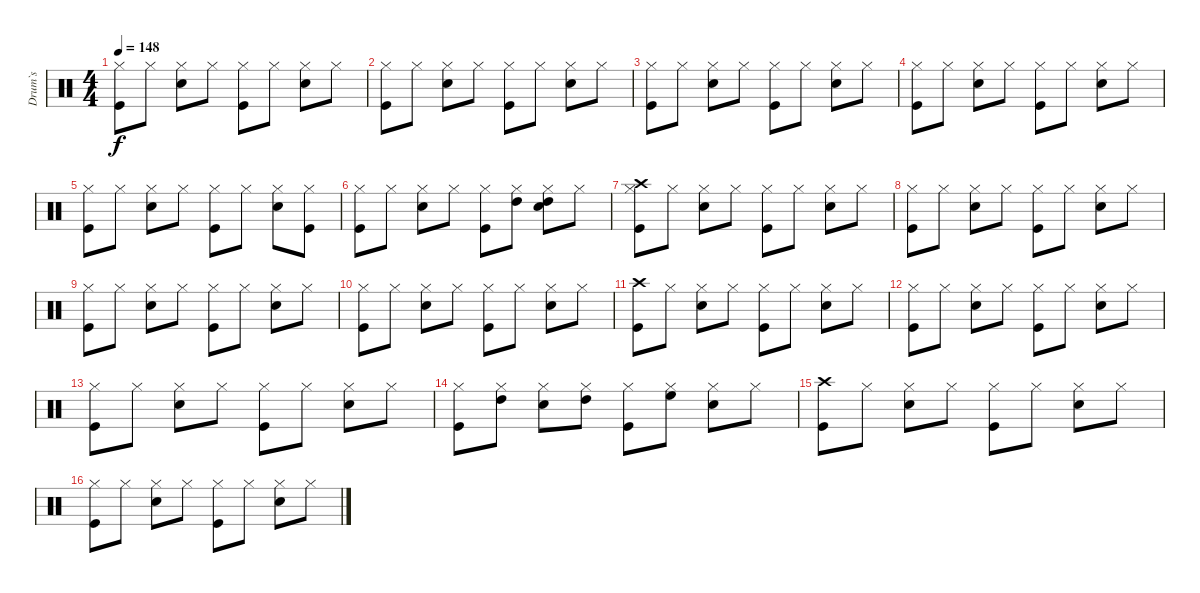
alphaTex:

\track ("Drum`s" "Drum`s") {instrument percussion}
\staff {score}
\articulation defaults
\ts (4 4)
\tempo 148
\clef neutral
\ks c
("Hi-Hat (closed)" "Kick (hit)").8{dy f} "Hi-Hat (closed)".8 ("Hi-Hat (closed)" "Snare (hit) 2").8 "Hi-Hat (closed)".8 ("Hi-Hat (closed)" "Kick (hit)").8 "Hi-Hat (closed)".8 ("Hi-Hat (closed)" "Snare (hit) 2").8 "Hi-Hat (closed)".8 |
("Hi-Hat (closed)" "Kick (hit)").8 "Hi-Hat (closed)".8 ("Hi-Hat (closed)" "Snare (hit) 2").8 "Hi-Hat (closed)".8 ("Hi-Hat (closed)" "Kick (hit)").8 "Hi-Hat (closed)".8 ("Hi-Hat (closed)" "Snare (hit) 2").8 "Hi-Hat (closed)".8 |
("Hi-Hat (closed)" "Kick (hit)").8 "Hi-Hat (closed)".8 ("Hi-Hat (closed)" "Snare (hit) 2").8 "Hi-Hat (closed)".8 ("Hi-Hat (closed)" "Kick (hit)").8 "Hi-Hat (closed)".8 ("Hi-Hat (closed)" "Snare (hit) 2").8 "Hi-Hat (closed)".8 |
("Hi-Hat (closed)" "Kick (hit)").8 "Hi-Hat (closed)".8 ("Hi-Hat (closed)" "Snare (hit) 2").8 "Hi-Hat (closed)".8 ("Hi-Hat (closed)" "Kick (hit)").8 "Hi-Hat (closed)".8 ("Hi-Hat (closed)" "Snare (hit) 2").8 "Hi-Hat (closed)".8 |
("Hi-Hat (closed)" "Kick (hit)").8 "Hi-Hat (closed)".8 ("Hi-Hat (closed)" "Snare (hit) 2").8 "Hi-Hat (closed)".8 ("Hi-Hat (closed)" "Kick (hit)").8 "Hi-Hat (closed)".8 ("Hi-Hat (closed)" "Snare (hit) 2").8 ("Kick (hit)" "Hi-Hat (closed)").8 |
("Hi-Hat (closed)" "Kick (hit)").8 "Hi-Hat (closed)".8 ("Hi-Hat (closed)" "Snare (hit) 2").8 "Hi-Hat (closed)".8 ("Hi-Hat (closed)" "Kick (hit)").8 ("High Tom (hit)" "Hi-Hat (closed)").8 ("High Tom (hit)" "Hi-Hat (closed)" "Snare (hit) 2").8 "Hi-Hat (closed)".8 |
("Crash high (hit)" "Hi-Hat (closed)" "Kick (hit)").8 "Hi-Hat (closed)".8 ("Hi-Hat (closed)" "Snare (hit) 2").8 "Hi-Hat (closed)".8 ("Hi-Hat (closed)" "Kick (hit)").8 "Hi-Hat (closed)".8 ("Hi-Hat (closed)" "Snare (hit) 2").8 "Hi-Hat (closed)".8 |
("Hi-Hat (closed)" "Kick (hit)").8 "Hi-Hat (closed)".8 ("Hi-Hat (closed)" "Snare (hit) 2").8 "Hi-Hat (closed)".8 ("Hi-Hat (closed)" "Kick (hit)").8 "Hi-Hat (closed)".8 ("Hi-Hat (closed)" "Snare (hit) 2").8 "Hi-Hat (closed)".8 |
("Hi-Hat (closed)" "Kick (hit)").8 "Hi-Hat (closed)".8 ("Hi-Hat (closed)" "Snare (hit) 2").8 "Hi-Hat (closed)".8 ("Hi-Hat (closed)" "Kick (hit)").8 "Hi-Hat (closed)".8 ("Hi-Hat (closed)" "Snare (hit) 2").8 "Hi-Hat (closed)".8 |
("Hi-Hat (closed)" "Kick (hit)").8 "Hi-Hat (closed)".8 ("Hi-Hat (closed)" "Snare (hit) 2").8 "Hi-Hat (closed)".8 ("Hi-Hat (closed)" "Kick (hit)").8 "Hi-Hat (closed)".8 ("Hi-Hat (closed)" "Snare (hit) 2").8 "Hi-Hat (closed)".8 |
("Crash high (hit)" "Kick (hit)").8 "Hi-Hat (closed)".8 ("Hi-Hat (closed)" "Snare (hit) 2").8 "Hi-Hat (closed)".8 ("Hi-Hat (closed)" "Kick (hit)").8 "Hi-Hat (closed)".8 ("Hi-Hat (closed)" "Snare (hit) 2").8 "Hi-Hat (closed)".8 |
("Hi-Hat (closed)" "Kick (hit)").8 "Hi-Hat (closed)".8 ("Hi-Hat (closed)" "Snare (hit) 2").8 "Hi-Hat (closed)".8 ("Hi-Hat (closed)" "Kick (hit)").8 "Hi-Hat (closed)".8 ("Hi-Hat (closed)" "Snare (hit) 2").8 "Hi-Hat (closed)".8 |
("Hi-Hat (closed)" "Kick (hit)").8 "Hi-Hat (closed)".8 ("Hi-Hat (closed)" "Snare (hit) 2").8 "Hi-Hat (closed)".8 ("Hi-Hat (closed)" "Kick (hit)").8 "Hi-Hat (closed)".8 ("Hi-Hat (closed)" "Snare (hit) 2").8 "Hi-Hat (closed)".8 |
("Hi-Hat (closed)" "Kick (hit)").8 ("High Tom (hit)" "Hi-Hat (closed)").8 ("Hi-Hat (closed)" "Snare (hit) 2").8 ("High Tom (hit)" "Hi-Hat (closed)").8 ("Hi-Hat (closed)" "Kick (hit)").8 ("High Floor Tom (hit)" "Hi-Hat (closed)").8 ("Hi-Hat (closed)" "Snare (hit) 2").8 "Hi-Hat (closed)".8 |
("Crash high (hit)" "Kick (hit)").8 "Hi-Hat (closed)".8 ("Hi-Hat (closed)" "Snare (hit) 2").8 "Hi-Hat (closed)".8 ("Hi-Hat (closed)" "Kick (hit)").8 "Hi-Hat (closed)".8 ("Hi-Hat (closed)" "Snare (hit) 2").8 "Hi-Hat (closed)".8 |
("Hi-Hat (closed)" "Kick (hit)").8 "Hi-Hat (closed)".8 ("Hi-Hat (closed)" "Snare (hit) 2").8 "Hi-Hat (closed)".8 ("Hi-Hat (closed)" "Kick (hit)").8 "Hi-Hat (closed)".8 ("Hi-Hat (closed)" "Snare (hit) 2").8 "Hi-Hat (closed)".8
